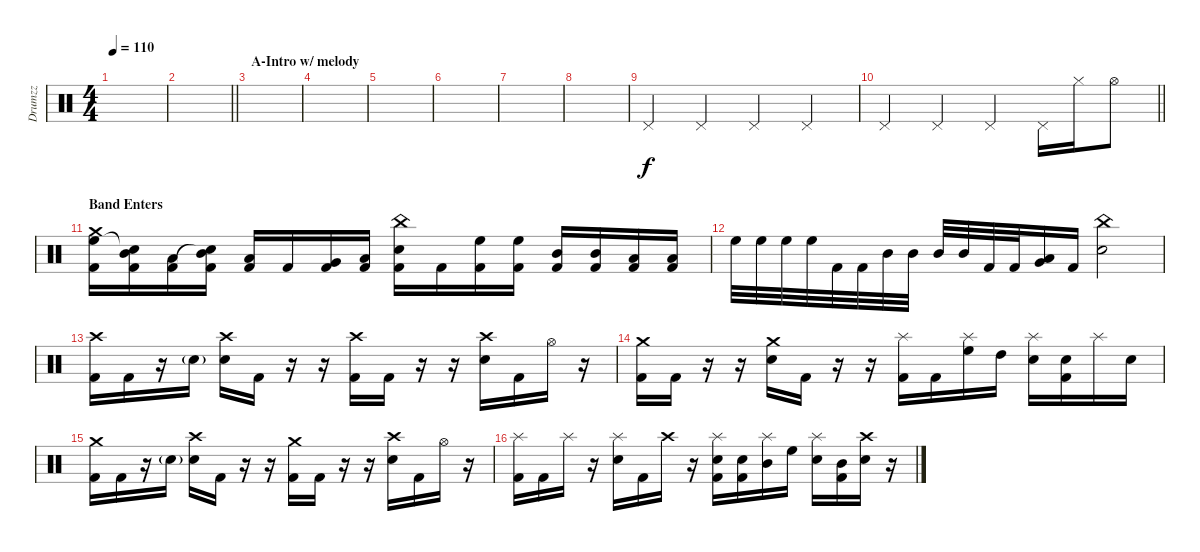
\track ("Drumzz" "Drumzz") {instrument percussion}
\staff {score}
\articulation defaults
\ts (4 4)
\tempo 110
\clef neutral
\ks c
|
\barLineRight lightlight
|
\section ("" "A-Intro w/ melody")
|
|
|
|
|
|
"Pedal Hi-Hat (hit)".4{volume 13} "Pedal Hi-Hat (hit)".4 "Pedal Hi-Hat (hit)".4 "Pedal Hi-Hat (hit)".4 |
\barLineRight lightlight "Pedal Hi-Hat (hit)".4 "Pedal Hi-Hat (hit)".4 "Pedal Hi-Hat (hit)".4 "Pedal Hi-Hat (hit)".16 "Hi-Hat (closed)".16 "Hi-Hat (open)".8
|
\section ("" "Band Enters")
("Crash medium (hit)" "High Floor Tom (hit)" "Kick (hit) 2").16 ("Mid Tom (hit)" "Snare (hit)"{t} "Kick (hit) 2").16 ("Low Tom (hit)" "Kick (hit) 2").16 ("Mid Tom (hit)" "Snare (hit)"{t} "Kick (hit) 2").16 ("Low Tom (hit)" "Kick (hit) 2").16 "Kick (hit) 2".16 ("Very Low Tom (hit)" "Kick (hit) 2").16 ("Low Floor Tom (hit)" "Kick (hit) 2").16 ("China (hit)" "Snare (hit) 2" "Kick (hit) 2").16 "Kick (hit) 2".16 ("High Floor Tom (hit)" "Kick (hit) 2").16 ("High Floor Tom (hit)" "Kick (hit) 2").16 ("Mid Tom (hit)" "Kick (hit) 2").16 ("Mid Tom (hit)" "Kick (hit) 2").16 ("Low Tom (hit)" "Kick (hit) 2").16 ("Low Tom (hit)" "Kick (hit) 2").16 |
"High Floor Tom (hit)".32 "High Floor Tom (hit)".32 "High Floor Tom (hit)".32 "High Floor Tom (hit)".32 "Kick (hit) 2".32 "Kick (hit) 2".32 "Mid Tom (hit)".32 "Mid Tom (hit)".32 "Mid Tom (hit)".32 "Mid Tom (hit)".32 "Kick (hit) 2".32 "Kick (hit) 2".32 ("Very Low Tom (hit)" "Low Floor Tom (hit)").16 "Kick (hit) 2".16 ("China (hit)" "Snare (hit) 2").2 |
("Crash high (hit)" "Kick (hit) 2").16{volume 14} "Kick (hit) 2".16 r.16 "Snare (hit) 2"{g}.16 ("Crash high (hit)" "Snare (hit) 2").16 "Kick (hit) 2".16 r.16 r.16 ("Crash high (hit)" "Kick (hit) 2").16 "Kick (hit) 2".16 r.16 r.16 ("Crash high (hit)" "Snare (hit) 2").16 "Kick (hit) 2".16 "Hi-Hat (open)".16 r.16 |
("Crash medium (hit)" "Kick (hit) 2").16 "Kick (hit) 2".16 r.16 r.16 ("Crash medium (hit)" "Snare (hit) 2").16 "Kick (hit) 2".16 r.16 r.16 ("Splash (hit)" "Kick (hit) 2").16 "Kick (hit) 2".16 ("Splash (hit)" "High Floor Tom (hit)").16 "High Tom (hit)".16 ("Splash (hit)" "Snare (hit) 2").16 ("Snare (hit) 2" "Kick (hit) 2").16 "Splash (hit)".16 "Snare (hit) 2".16 |
("Crash medium (hit)" "Kick (hit) 2").16 "Kick (hit) 2".16 r.16 "Snare (hit) 2"{g}.16 ("Crash high (hit)" "Snare (hit) 2").16 "Kick (hit) 2".16 r.16 r.16 ("Crash medium (hit)" "Kick (hit) 2").16 "Kick (hit) 2".16 r.16 r.16 ("Crash high (hit)" "Snare (hit) 2").16 "Kick (hit) 2".16 "Hi-Hat (open)".16 r.16 |
("Splash (hit)" "Kick (hit) 2").16 "Kick (hit) 2".16 "Splash (hit)".16 r.16 ("Splash (hit)" "Snare (hit) 2").16 "Kick (hit) 2".16 "Crash high (hit)".16 r.16 ("Splash (hit)" "Snare (hit) 2" "Kick (hit) 2").16 ("Snare (hit) 2" "Kick (hit) 2").16 ("Splash (hit)" "Mid Tom (hit)").16 "High Floor Tom (hit)".16 ("Splash (hit)" "Snare (hit) 2").16 ("Mid Tom (hit)" "Kick (hit) 2").16 ("Crash high (hit)" "Snare (hit) 2").16 r.16
